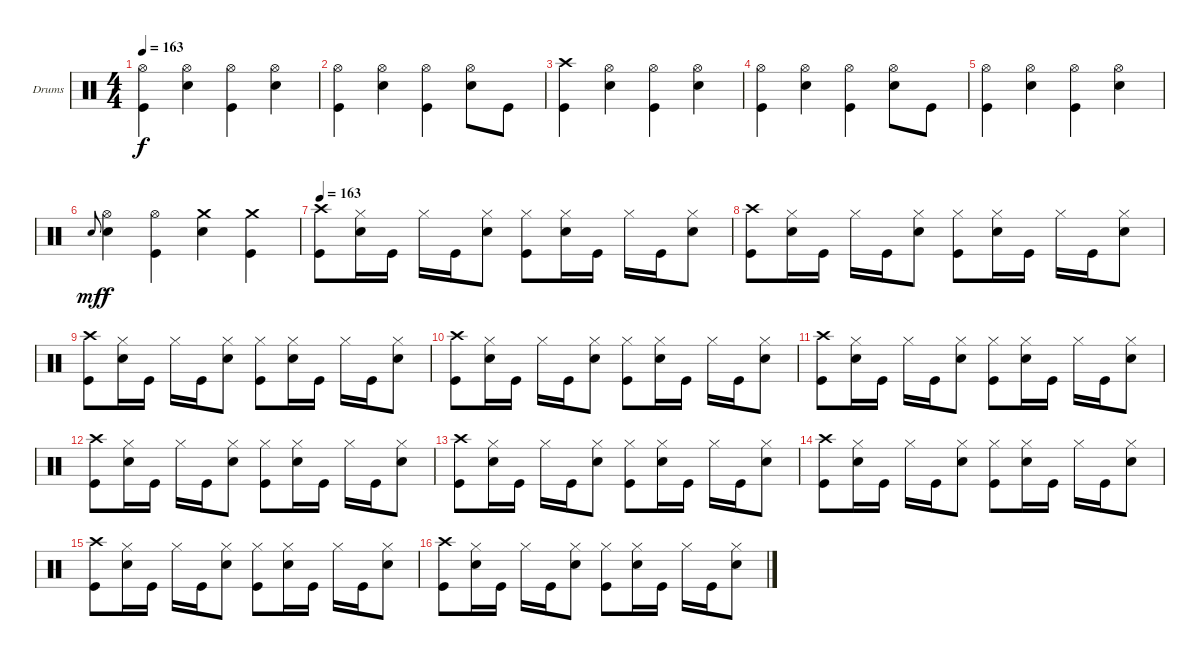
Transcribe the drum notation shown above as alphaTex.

\bracketExtendMode groupsimilarinstruments
\firstSystemTrackNameOrientation horizontal
\otherSystemsTrackNameOrientation horizontal
\track ("Drumkit" "Drums") {instrument percussion}
\staff {score}
\articulation defaults
\ts (4 4)
\tempo 163
\clef neutral
\ks c
("Hi-Hat (open)" "Kick (hit)").4{dy f} ("Hi-Hat (open)" "Snare (hit) 2").4 ("Hi-Hat (open)" "Kick (hit)").4 ("Hi-Hat (open)" "Snare (hit) 2").4 |
("Hi-Hat (open)" "Kick (hit)").4 ("Hi-Hat (open)" "Snare (hit) 2").4 ("Hi-Hat (open)" "Kick (hit)").4 ("Hi-Hat (open)" "Snare (hit) 2").8 "Kick (hit)".8 |
("Crash high (hit)" "Kick (hit)").4 ("Hi-Hat (open)" "Snare (hit) 2").4 ("Hi-Hat (open)" "Kick (hit)").4 ("Hi-Hat (open)" "Snare (hit) 2").4 |
("Hi-Hat (open)" "Kick (hit)").4 ("Hi-Hat (open)" "Snare (hit) 2").4 ("Hi-Hat (open)" "Kick (hit)").4 ("Hi-Hat (open)" "Snare (hit) 2").8 "Kick (hit)".8 |
("Hi-Hat (open)" "Kick (hit)").4 ("Hi-Hat (open)" "Snare (hit) 2").4 ("Hi-Hat (open)" "Kick (hit)").4 ("Hi-Hat (open)" "Snare (hit) 2").4 |
"Snare (hit) 2".8{gr onbeat dy mf} ("Hi-Hat (open)" "Snare (hit) 2").4{dy f} ("Hi-Hat (open)" "Kick (hit)").4 ("Crash medium (hit)" "Snare (hit) 2").4 ("Crash medium (hit)" "Kick (hit)").4 |
\tempo 163
("Crash high (hit)" "Kick (hit)").8 ("Hi-Hat (closed)" "Snare (hit) 2").16 "Kick (hit)".16 "Hi-Hat (closed)".16 "Kick (hit)".16 ("Hi-Hat (closed)" "Snare (hit) 2").8 ("Hi-Hat (closed)" "Kick (hit)").8 ("Hi-Hat (closed)" "Snare (hit) 2").16 "Kick (hit)".16 "Hi-Hat (closed)".16 "Kick (hit)".16 ("Hi-Hat (closed)" "Snare (hit) 2").8 |
("Crash high (hit)" "Kick (hit)").8 ("Hi-Hat (closed)" "Snare (hit) 2").16 "Kick (hit)".16 "Hi-Hat (closed)".16 "Kick (hit)".16 ("Hi-Hat (closed)" "Snare (hit) 2").8 ("Hi-Hat (closed)" "Kick (hit)").8 ("Hi-Hat (closed)" "Snare (hit) 2").16 "Kick (hit)".16 "Hi-Hat (closed)".16 "Kick (hit)".16 ("Hi-Hat (closed)" "Snare (hit) 2").8 |
("Crash high (hit)" "Kick (hit)").8 ("Hi-Hat (closed)" "Snare (hit) 2").16 "Kick (hit)".16 "Hi-Hat (closed)".16 "Kick (hit)".16 ("Hi-Hat (closed)" "Snare (hit) 2").8 ("Hi-Hat (closed)" "Kick (hit)").8 ("Hi-Hat (closed)" "Snare (hit) 2").16 "Kick (hit)".16 "Hi-Hat (closed)".16 "Kick (hit)".16 ("Hi-Hat (closed)" "Snare (hit) 2").8 |
("Crash high (hit)" "Kick (hit)").8 ("Hi-Hat (closed)" "Snare (hit) 2").16 "Kick (hit)".16 "Hi-Hat (closed)".16 "Kick (hit)".16 ("Hi-Hat (closed)" "Snare (hit) 2").8 ("Hi-Hat (closed)" "Kick (hit)").8 ("Hi-Hat (closed)" "Snare (hit) 2").16 "Kick (hit)".16 "Hi-Hat (closed)".16 "Kick (hit)".16 ("Hi-Hat (closed)" "Snare (hit) 2").8 |
("Crash high (hit)" "Kick (hit)").8 ("Hi-Hat (closed)" "Snare (hit) 2").16 "Kick (hit)".16 "Hi-Hat (closed)".16 "Kick (hit)".16 ("Hi-Hat (closed)" "Snare (hit) 2").8 ("Hi-Hat (closed)" "Kick (hit)").8 ("Hi-Hat (closed)" "Snare (hit) 2").16 "Kick (hit)".16 "Hi-Hat (closed)".16 "Kick (hit)".16 ("Hi-Hat (closed)" "Snare (hit) 2").8 |
("Crash high (hit)" "Kick (hit)").8 ("Hi-Hat (closed)" "Snare (hit) 2").16 "Kick (hit)".16 "Hi-Hat (closed)".16 "Kick (hit)".16 ("Hi-Hat (closed)" "Snare (hit) 2").8 ("Hi-Hat (closed)" "Kick (hit)").8 ("Hi-Hat (closed)" "Snare (hit) 2").16 "Kick (hit)".16 "Hi-Hat (closed)".16 "Kick (hit)".16 ("Hi-Hat (closed)" "Snare (hit) 2").8 |
("Crash high (hit)" "Kick (hit)").8 ("Hi-Hat (closed)" "Snare (hit) 2").16 "Kick (hit)".16 "Hi-Hat (closed)".16 "Kick (hit)".16 ("Hi-Hat (closed)" "Snare (hit) 2").8 ("Hi-Hat (closed)" "Kick (hit)").8 ("Hi-Hat (closed)" "Snare (hit) 2").16 "Kick (hit)".16 "Hi-Hat (closed)".16 "Kick (hit)".16 ("Hi-Hat (closed)" "Snare (hit) 2").8 |
("Crash high (hit)" "Kick (hit)").8 ("Hi-Hat (closed)" "Snare (hit) 2").16 "Kick (hit)".16 "Hi-Hat (closed)".16 "Kick (hit)".16 ("Hi-Hat (closed)" "Snare (hit) 2").8 ("Hi-Hat (closed)" "Kick (hit)").8 ("Hi-Hat (closed)" "Snare (hit) 2").16 "Kick (hit)".16 "Hi-Hat (closed)".16 "Kick (hit)".16 ("Hi-Hat (closed)" "Snare (hit) 2").8 |
("Crash high (hit)" "Kick (hit)").8 ("Hi-Hat (closed)" "Snare (hit) 2").16 "Kick (hit)".16 "Hi-Hat (closed)".16 "Kick (hit)".16 ("Hi-Hat (closed)" "Snare (hit) 2").8 ("Hi-Hat (closed)" "Kick (hit)").8 ("Hi-Hat (closed)" "Snare (hit) 2").16 "Kick (hit)".16 "Hi-Hat (closed)".16 "Kick (hit)".16 ("Hi-Hat (closed)" "Snare (hit) 2").8 |
("Crash high (hit)" "Kick (hit)").8 ("Hi-Hat (closed)" "Snare (hit) 2").16 "Kick (hit)".16 "Hi-Hat (closed)".16 "Kick (hit)".16 ("Hi-Hat (closed)" "Snare (hit) 2").8 ("Hi-Hat (closed)" "Kick (hit)").8 ("Hi-Hat (closed)" "Snare (hit) 2").16 "Kick (hit)".16 "Hi-Hat (closed)".16 "Kick (hit)".16 ("Hi-Hat (closed)" "Snare (hit) 2").8
